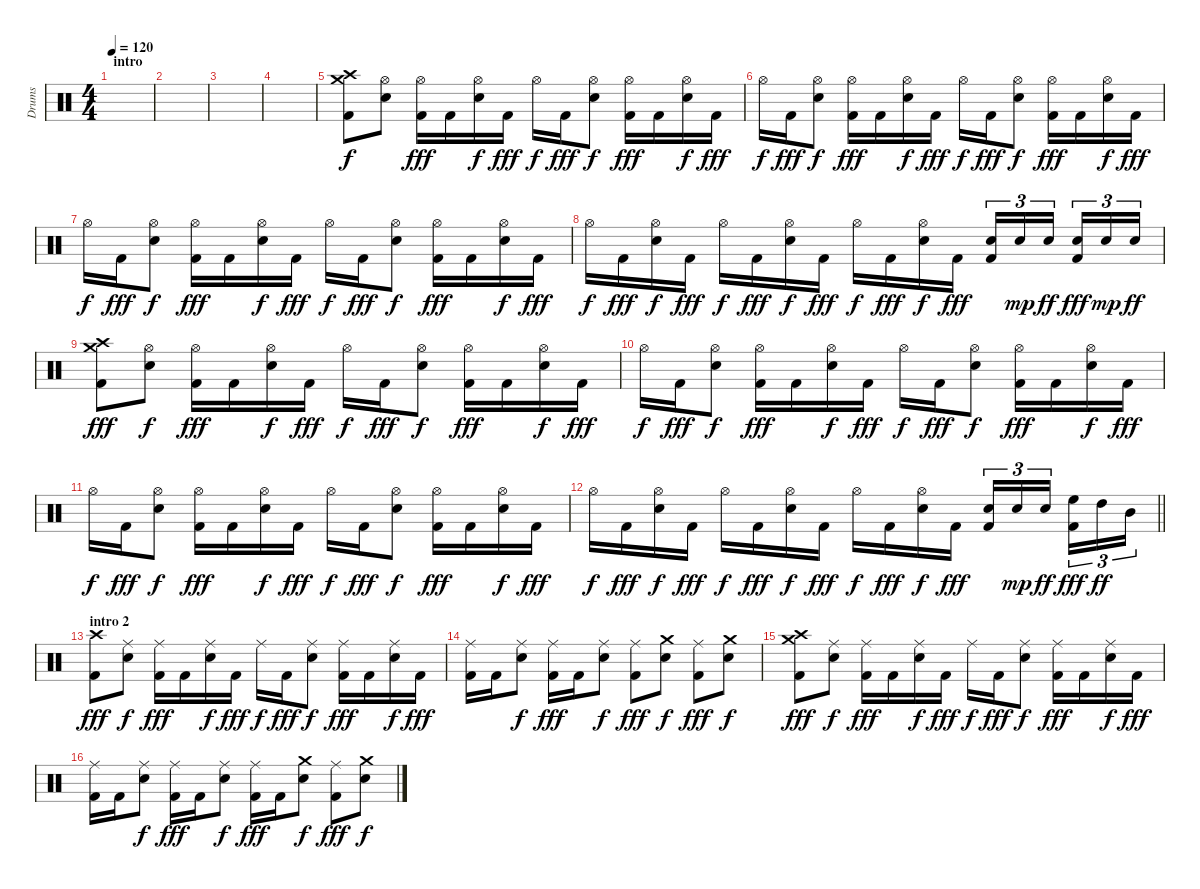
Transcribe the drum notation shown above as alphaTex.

\track ("Drums" "Drums") {instrument percussion}
\staff {score}
\articulation defaults
\ts (4 4)
\section ("" "intro")
\tempo 120
\clef neutral
\ks c
|
|
|
|
("Crash high (hit)" "Crash medium (hit)" "Kick (hit) 2").8 ("Hi-Hat (open)" "Electric Snare (hit)").8{dy f} ("Hi-Hat (open)" "Kick (hit) 2").16{dy fff} "Kick (hit) 2".16 ("Hi-Hat (open)" "Electric Snare (hit)").16{dy f} "Kick (hit) 2".16{dy fff} "Hi-Hat (open)".16{dy f} "Kick (hit) 2".16{dy fff} ("Hi-Hat (open)" "Electric Snare (hit)").8{dy f} ("Hi-Hat (open)" "Kick (hit) 2").16{dy fff} "Kick (hit) 2".16 ("Hi-Hat (open)" "Electric Snare (hit)").16{dy f} "Kick (hit) 2".16{dy fff} |
"Hi-Hat (open)".16{dy f} "Kick (hit) 2".16{dy fff} ("Hi-Hat (open)" "Electric Snare (hit)").8{dy f} ("Hi-Hat (open)" "Kick (hit) 2").16{dy fff} "Kick (hit) 2".16 ("Hi-Hat (open)" "Electric Snare (hit)").16{dy f} "Kick (hit) 2".16{dy fff} "Hi-Hat (open)".16{dy f} "Kick (hit) 2".16{dy fff} ("Hi-Hat (open)" "Electric Snare (hit)").8{dy f} ("Hi-Hat (open)" "Kick (hit) 2").16{dy fff} "Kick (hit) 2".16 ("Hi-Hat (open)" "Electric Snare (hit)").16{dy f} "Kick (hit) 2".16{dy fff} |
"Hi-Hat (open)".16{dy f} "Kick (hit) 2".16{dy fff} ("Hi-Hat (open)" "Electric Snare (hit)").8{dy f} ("Hi-Hat (open)" "Kick (hit) 2").16{dy fff} "Kick (hit) 2".16 ("Hi-Hat (open)" "Electric Snare (hit)").16{dy f} "Kick (hit) 2".16{dy fff} "Hi-Hat (open)".16{dy f} "Kick (hit) 2".16{dy fff} ("Hi-Hat (open)" "Electric Snare (hit)").8{dy f} ("Hi-Hat (open)" "Kick (hit) 2").16{dy fff} "Kick (hit) 2".16 ("Hi-Hat (open)" "Electric Snare (hit)").16{dy f} "Kick (hit) 2".16{dy fff} |
"Hi-Hat (open)".16{dy f} "Kick (hit) 2".16{dy fff} ("Hi-Hat (open)" "Electric Snare (hit)").16{dy f} "Kick (hit) 2".16{dy fff} "Hi-Hat (open)".16{dy f} "Kick (hit) 2".16{dy fff} ("Hi-Hat (open)" "Electric Snare (hit)").16{dy f} "Kick (hit) 2".16{dy fff} "Hi-Hat (open)".16{dy f} "Kick (hit) 2".16{dy fff} ("Hi-Hat (open)" "Electric Snare (hit)").16{dy f} "Kick (hit) 2".16{dy fff} ("Electric Snare (hit)" "Kick (hit) 2").16{tu (3 2)} "Electric Snare (hit)".16{tu (3 2) dy mp} "Electric Snare (hit)".16{tu (3 2) dy ff} ("Electric Snare (hit)" "Kick (hit) 2").16{tu (3 2) dy fff} "Electric Snare (hit)".16{tu (3 2) dy mp} "Electric Snare (hit)".16{tu (3 2) dy ff} |
("Crash high (hit)" "Crash medium (hit)" "Kick (hit) 2").8{dy fff} ("Hi-Hat (open)" "Electric Snare (hit)").8{dy f} ("Hi-Hat (open)" "Kick (hit) 2").16{dy fff} "Kick (hit) 2".16 ("Hi-Hat (open)" "Electric Snare (hit)").16{dy f} "Kick (hit) 2".16{dy fff} "Hi-Hat (open)".16{dy f} "Kick (hit) 2".16{dy fff} ("Hi-Hat (open)" "Electric Snare (hit)").8{dy f} ("Hi-Hat (open)" "Kick (hit) 2").16{dy fff} "Kick (hit) 2".16 ("Hi-Hat (open)" "Electric Snare (hit)").16{dy f} "Kick (hit) 2".16{dy fff} |
"Hi-Hat (open)".16{dy f} "Kick (hit) 2".16{dy fff} ("Hi-Hat (open)" "Electric Snare (hit)").8{dy f} ("Hi-Hat (open)" "Kick (hit) 2").16{dy fff} "Kick (hit) 2".16 ("Hi-Hat (open)" "Electric Snare (hit)").16{dy f} "Kick (hit) 2".16{dy fff} "Hi-Hat (open)".16{dy f} "Kick (hit) 2".16{dy fff} ("Hi-Hat (open)" "Electric Snare (hit)").8{dy f} ("Hi-Hat (open)" "Kick (hit) 2").16{dy fff} "Kick (hit) 2".16 ("Hi-Hat (open)" "Electric Snare (hit)").16{dy f} "Kick (hit) 2".16{dy fff} |
"Hi-Hat (open)".16{dy f} "Kick (hit) 2".16{dy fff} ("Hi-Hat (open)" "Electric Snare (hit)").8{dy f} ("Hi-Hat (open)" "Kick (hit) 2").16{dy fff} "Kick (hit) 2".16 ("Hi-Hat (open)" "Electric Snare (hit)").16{dy f} "Kick (hit) 2".16{dy fff} "Hi-Hat (open)".16{dy f} "Kick (hit) 2".16{dy fff} ("Hi-Hat (open)" "Electric Snare (hit)").8{dy f} ("Hi-Hat (open)" "Kick (hit) 2").16{dy fff} "Kick (hit) 2".16 ("Hi-Hat (open)" "Electric Snare (hit)").16{dy f} "Kick (hit) 2".16{dy fff} |
\barLineRight lightlight "Hi-Hat (open)".16{dy f} "Kick (hit) 2".16{dy fff}
("Hi-Hat (open)" "Electric Snare (hit)").16{dy f} "Kick (hit) 2".16{dy fff} "Hi-Hat (open)".16{dy f} "Kick (hit) 2".16{dy fff} ("Hi-Hat (open)" "Electric Snare (hit)").16{dy f} "Kick (hit) 2".16{dy fff} "Hi-Hat (open)".16{dy f} "Kick (hit) 2".16{dy fff} ("Hi-Hat (open)" "Electric Snare (hit)").16{dy f} "Kick (hit) 2".16{dy fff} ("Electric Snare (hit)" "Kick (hit) 2").16{tu (3 2)} "Electric Snare (hit)".16{tu (3 2) dy mp} "Electric Snare (hit)".16{tu (3 2) dy ff} ("High Floor Tom (hit)" "Kick (hit) 2").16{tu (3 2) dy fff} "High Tom (hit)".16{tu (3 2) dy ff} "Mid Tom (hit)".16{tu (3 2)} |
\section ("" "intro 2")
("Crash high (hit)" "Kick (hit) 2").8{dy fff} ("Ride (middle)" "Electric Snare (hit)").8{dy f} ("Ride (middle)" "Kick (hit) 2").16{dy fff} "Kick (hit) 2".16 ("Ride (middle)" "Electric Snare (hit)").16{dy f} "Kick (hit) 2".16{dy fff} "Ride (middle)".16{dy f} "Kick (hit) 2".16{dy fff} ("Ride (middle)" "Electric Snare (hit)").8{dy f} ("Ride (middle)" "Kick (hit) 2").16{dy fff} "Kick (hit) 2".16 ("Ride (middle)" "Electric Snare (hit)").16{dy f} "Kick (hit) 2".16{dy fff} |
("Ride (middle)" "Kick (hit) 2").16 "Kick (hit) 2".16 ("Ride (middle)" "Electric Snare (hit)").8{dy f} ("Ride (middle)" "Kick (hit) 2").16{dy fff} "Kick (hit) 2".16 ("Ride (middle)" "Electric Snare (hit)").8{dy f} ("Ride (middle)" "Kick (hit) 2").8{dy fff} ("Crash medium (hit)" "Electric Snare (hit)").8{dy f} ("Ride (middle)" "Kick (hit) 2").8{dy fff} ("Crash medium (hit)" "Electric Snare (hit)").8{dy f} |
("Crash high (hit)" "Crash medium (hit)" "Kick (hit) 2").8{dy fff} ("Ride (middle)" "Electric Snare (hit)").8{dy f} ("Ride (middle)" "Kick (hit) 2").16{dy fff} "Kick (hit) 2".16 ("Ride (middle)" "Electric Snare (hit)").16{dy f} "Kick (hit) 2".16{dy fff} "Ride (middle)".16{dy f} "Kick (hit) 2".16{dy fff} ("Ride (middle)" "Electric Snare (hit)").8{dy f} ("Ride (middle)" "Kick (hit) 2").16{dy fff} "Kick (hit) 2".16 ("Ride (middle)" "Electric Snare (hit)").16{dy f} "Kick (hit) 2".16{dy fff} |
("Ride (middle)" "Kick (hit) 2").16 "Kick (hit) 2".16 ("Ride (middle)" "Electric Snare (hit)").8{dy f} ("Ride (middle)" "Kick (hit) 2").16{dy fff} "Kick (hit) 2".16 ("Ride (middle)" "Electric Snare (hit)").8{dy f} ("Ride (middle)" "Kick (hit) 2").16{dy fff} "Kick (hit) 2".16 ("Crash medium (hit)" "Electric Snare (hit)").8{dy f} ("Ride (middle)" "Kick (hit) 2").8{dy fff} ("Crash medium (hit)" "Electric Snare (hit)").8{dy f}
